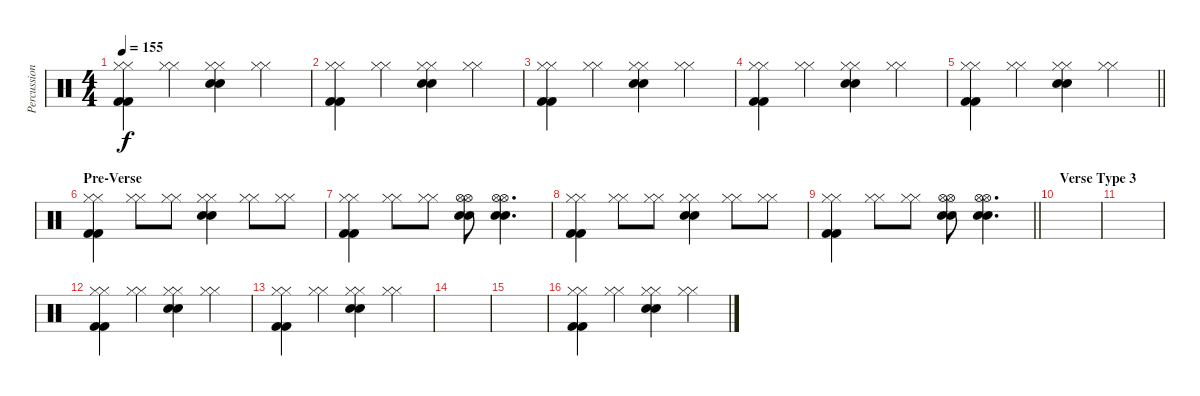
\track ("Percussion" "Percussion") {instrument percussion}
\staff {score}
\articulation defaults
\ts (4 4)
\tempo 155
\clef neutral
\ks c
("Hi-Hat (closed)" "Hi-Hat (closed)" "Kick (hit) 2" "Kick (hit) 2").4{dy f} ("Hi-Hat (closed)" "Hi-Hat (closed)").4 ("Hi-Hat (closed)" "Hi-Hat (closed)" "Electric Snare (hit)" "Electric Snare (hit)").4 ("Hi-Hat (closed)" "Hi-Hat (closed)").4 |
("Hi-Hat (closed)" "Hi-Hat (closed)" "Kick (hit) 2" "Kick (hit) 2").4 ("Hi-Hat (closed)" "Hi-Hat (closed)").4 ("Hi-Hat (closed)" "Hi-Hat (closed)" "Electric Snare (hit)" "Electric Snare (hit)").4 ("Hi-Hat (closed)" "Hi-Hat (closed)").4 |
("Hi-Hat (closed)" "Hi-Hat (closed)" "Kick (hit) 2" "Kick (hit) 2").4 ("Hi-Hat (closed)" "Hi-Hat (closed)").4 ("Hi-Hat (closed)" "Hi-Hat (closed)" "Electric Snare (hit)" "Electric Snare (hit)").4 ("Hi-Hat (closed)" "Hi-Hat (closed)").4 |
("Hi-Hat (closed)" "Hi-Hat (closed)" "Kick (hit) 2" "Kick (hit) 2").4 ("Hi-Hat (closed)" "Hi-Hat (closed)").4 ("Hi-Hat (closed)" "Hi-Hat (closed)" "Electric Snare (hit)" "Electric Snare (hit)").4 ("Hi-Hat (closed)" "Hi-Hat (closed)").4 |
\barLineRight lightlight
("Hi-Hat (closed)" "Hi-Hat (closed)" "Kick (hit) 2" "Kick (hit) 2").4 ("Hi-Hat (closed)" "Hi-Hat (closed)").4 ("Hi-Hat (closed)" "Hi-Hat (closed)" "Electric Snare (hit)" "Electric Snare (hit)").4 ("Hi-Hat (closed)" "Hi-Hat (closed)").4 |
\section ("" "Pre-Verse")
("Hi-Hat (closed)" "Hi-Hat (closed)" "Kick (hit) 2" "Kick (hit) 2").4 ("Hi-Hat (closed)" "Hi-Hat (closed)").8 ("Hi-Hat (closed)" "Hi-Hat (closed)").8 ("Hi-Hat (closed)" "Hi-Hat (closed)" "Electric Snare (hit)" "Electric Snare (hit)").4 ("Hi-Hat (closed)" "Hi-Hat (closed)").8 ("Hi-Hat (closed)" "Hi-Hat (closed)").8 |
("Hi-Hat (closed)" "Hi-Hat (closed)" "Kick (hit) 2" "Kick (hit) 2").4 ("Hi-Hat (closed)" "Hi-Hat (closed)").8 ("Hi-Hat (closed)" "Hi-Hat (closed)").8 ("Hi-Hat (open)" "Hi-Hat (open)" "Electric Snare (hit)" "Electric Snare (hit)").8 ("Hi-Hat (open)" "Hi-Hat (open)" "Electric Snare (hit)" "Electric Snare (hit)").4{d} |
("Hi-Hat (closed)" "Hi-Hat (closed)" "Kick (hit) 2" "Kick (hit) 2").4 ("Hi-Hat (closed)" "Hi-Hat (closed)").8 ("Hi-Hat (closed)" "Hi-Hat (closed)").8 ("Hi-Hat (closed)" "Hi-Hat (closed)" "Electric Snare (hit)" "Electric Snare (hit)").4 ("Hi-Hat (closed)" "Hi-Hat (closed)").8 ("Hi-Hat (closed)" "Hi-Hat (closed)").8 |
\barLineRight lightlight
("Hi-Hat (closed)" "Hi-Hat (closed)" "Kick (hit) 2" "Kick (hit) 2").4 ("Hi-Hat (closed)" "Hi-Hat (closed)").8 ("Hi-Hat (closed)" "Hi-Hat (closed)").8 ("Hi-Hat (open)" "Hi-Hat (open)" "Electric Snare (hit)" "Electric Snare (hit)").8 ("Hi-Hat (open)" "Hi-Hat (open)" "Electric Snare (hit)" "Electric Snare (hit)").4{d} |
\section ("" "Verse Type 3")
|
|
("Hi-Hat (closed)" "Hi-Hat (closed)" "Kick (hit) 2" "Kick (hit) 2").4 ("Hi-Hat (closed)" "Hi-Hat (closed)").4 ("Hi-Hat (closed)" "Hi-Hat (closed)" "Electric Snare (hit)" "Electric Snare (hit)").4 ("Hi-Hat (closed)" "Hi-Hat (closed)").4 |
("Hi-Hat (closed)" "Hi-Hat (closed)" "Kick (hit) 2" "Kick (hit) 2").4 ("Hi-Hat (closed)" "Hi-Hat (closed)").4 ("Hi-Hat (closed)" "Hi-Hat (closed)" "Electric Snare (hit)" "Electric Snare (hit)").4 ("Hi-Hat (closed)" "Hi-Hat (closed)").4 |
|
|
("Hi-Hat (closed)" "Hi-Hat (closed)" "Kick (hit) 2" "Kick (hit) 2").4 ("Hi-Hat (closed)" "Hi-Hat (closed)").4 ("Hi-Hat (closed)" "Hi-Hat (closed)" "Electric Snare (hit)" "Electric Snare (hit)").4 ("Hi-Hat (closed)" "Hi-Hat (closed)").4
